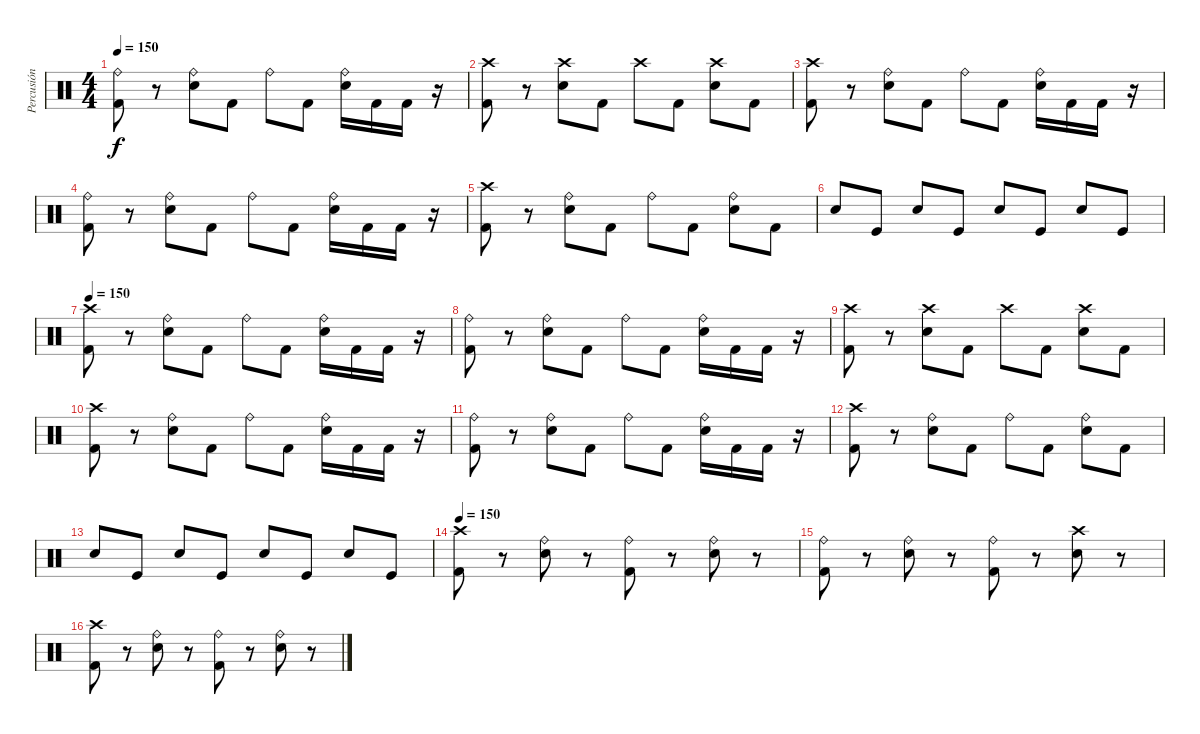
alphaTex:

\track ("Percusión" "Percusión") {instrument percussion}
\staff {score}
\articulation defaults
\ts (4 4)
\tempo 150
\clef neutral
\ks c
("Ride (bell)" "Kick (hit) 2").8{dy f} r.8 ("Ride (bell)" "Electric Snare (hit)").8 "Kick (hit) 2".8 "Ride (bell)".8 "Kick (hit) 2".8 ("Ride (bell)" "Electric Snare (hit)").16 "Kick (hit) 2".16 "Kick (hit) 2".16 r.16 |
("Crash high (hit)" "Kick (hit) 2").8 r.8 ("Crash high (hit)" "Electric Snare (hit)").8 "Kick (hit) 2".8 "Crash high (hit)".8 "Kick (hit) 2".8 ("Crash high (hit)" "Electric Snare (hit)").8 "Kick (hit) 2".8 |
("Crash high (hit)" "Kick (hit) 2").8 r.8 ("Ride (bell)" "Electric Snare (hit)").8 "Kick (hit) 2".8 "Ride (bell)".8 "Kick (hit) 2".8 ("Ride (bell)" "Electric Snare (hit)").16 "Kick (hit) 2".16 "Kick (hit) 2".16 r.16 |
("Ride (bell)" "Kick (hit) 2").8 r.8 ("Ride (bell)" "Electric Snare (hit)").8 "Kick (hit) 2".8 "Ride (bell)".8 "Kick (hit) 2".8 ("Ride (bell)" "Electric Snare (hit)").16 "Kick (hit) 2".16 "Kick (hit) 2".16 r.16 |
("Crash high (hit)" "Kick (hit) 2").8 r.8 ("Ride (bell)" "Electric Snare (hit)").8 "Kick (hit) 2".8 "Ride (bell)".8 "Kick (hit) 2".8 ("Ride (bell)" "Electric Snare (hit)").8 "Kick (hit) 2".8 |
"Electric Snare (hit)".8 "Kick (hit)".8 "Electric Snare (hit)".8 "Kick (hit)".8 "Electric Snare (hit)".8 "Kick (hit)".8 "Electric Snare (hit)".8 "Kick (hit)".8 |
\tempo 150
("Crash high (hit)" "Kick (hit) 2").8 r.8 ("Ride (bell)" "Electric Snare (hit)").8 "Kick (hit) 2".8 "Ride (bell)".8 "Kick (hit) 2".8 ("Ride (bell)" "Electric Snare (hit)").16 "Kick (hit) 2".16 "Kick (hit) 2".16 r.16 |
("Ride (bell)" "Kick (hit) 2").8 r.8 ("Ride (bell)" "Electric Snare (hit)").8 "Kick (hit) 2".8 "Ride (bell)".8 "Kick (hit) 2".8 ("Ride (bell)" "Electric Snare (hit)").16 "Kick (hit) 2".16 "Kick (hit) 2".16 r.16 |
("Crash high (hit)" "Kick (hit) 2").8 r.8 ("Crash high (hit)" "Electric Snare (hit)").8 "Kick (hit) 2".8 "Crash high (hit)".8 "Kick (hit) 2".8 ("Crash high (hit)" "Electric Snare (hit)").8 "Kick (hit) 2".8 |
("Crash high (hit)" "Kick (hit) 2").8 r.8 ("Ride (bell)" "Electric Snare (hit)").8 "Kick (hit) 2".8 "Ride (bell)".8 "Kick (hit) 2".8 ("Ride (bell)" "Electric Snare (hit)").16 "Kick (hit) 2".16 "Kick (hit) 2".16 r.16 |
("Ride (bell)" "Kick (hit) 2").8 r.8 ("Ride (bell)" "Electric Snare (hit)").8 "Kick (hit) 2".8 "Ride (bell)".8 "Kick (hit) 2".8 ("Ride (bell)" "Electric Snare (hit)").16 "Kick (hit) 2".16 "Kick (hit) 2".16 r.16 |
("Crash high (hit)" "Kick (hit) 2").8 r.8 ("Ride (bell)" "Electric Snare (hit)").8 "Kick (hit) 2".8 "Ride (bell)".8 "Kick (hit) 2".8 ("Ride (bell)" "Electric Snare (hit)").8 "Kick (hit) 2".8 |
"Electric Snare (hit)".8 "Kick (hit)".8 "Electric Snare (hit)".8 "Kick (hit)".8 "Electric Snare (hit)".8 "Kick (hit)".8 "Electric Snare (hit)".8 "Kick (hit)".8 |
\tempo 150
("Crash high (hit)" "Kick (hit) 2").8 r.8 ("Ride (bell)" "Electric Snare (hit)").8 r.8 ("Ride (bell)" "Kick (hit) 2").8 r.8 ("Ride (bell)" "Electric Snare (hit)").8 r.8 |
("Ride (bell)" "Kick (hit) 2").8 r.8 ("Ride (bell)" "Electric Snare (hit)").8 r.8 ("Ride (bell)" "Kick (hit) 2").8 r.8 ("Crash high (hit)" "Electric Snare (hit)").8 r.8 |
("Crash high (hit)" "Kick (hit) 2").8 r.8 ("Ride (bell)" "Electric Snare (hit)").8 r.8 ("Ride (bell)" "Kick (hit) 2").8 r.8 ("Ride (bell)" "Electric Snare (hit)").8 r.8
